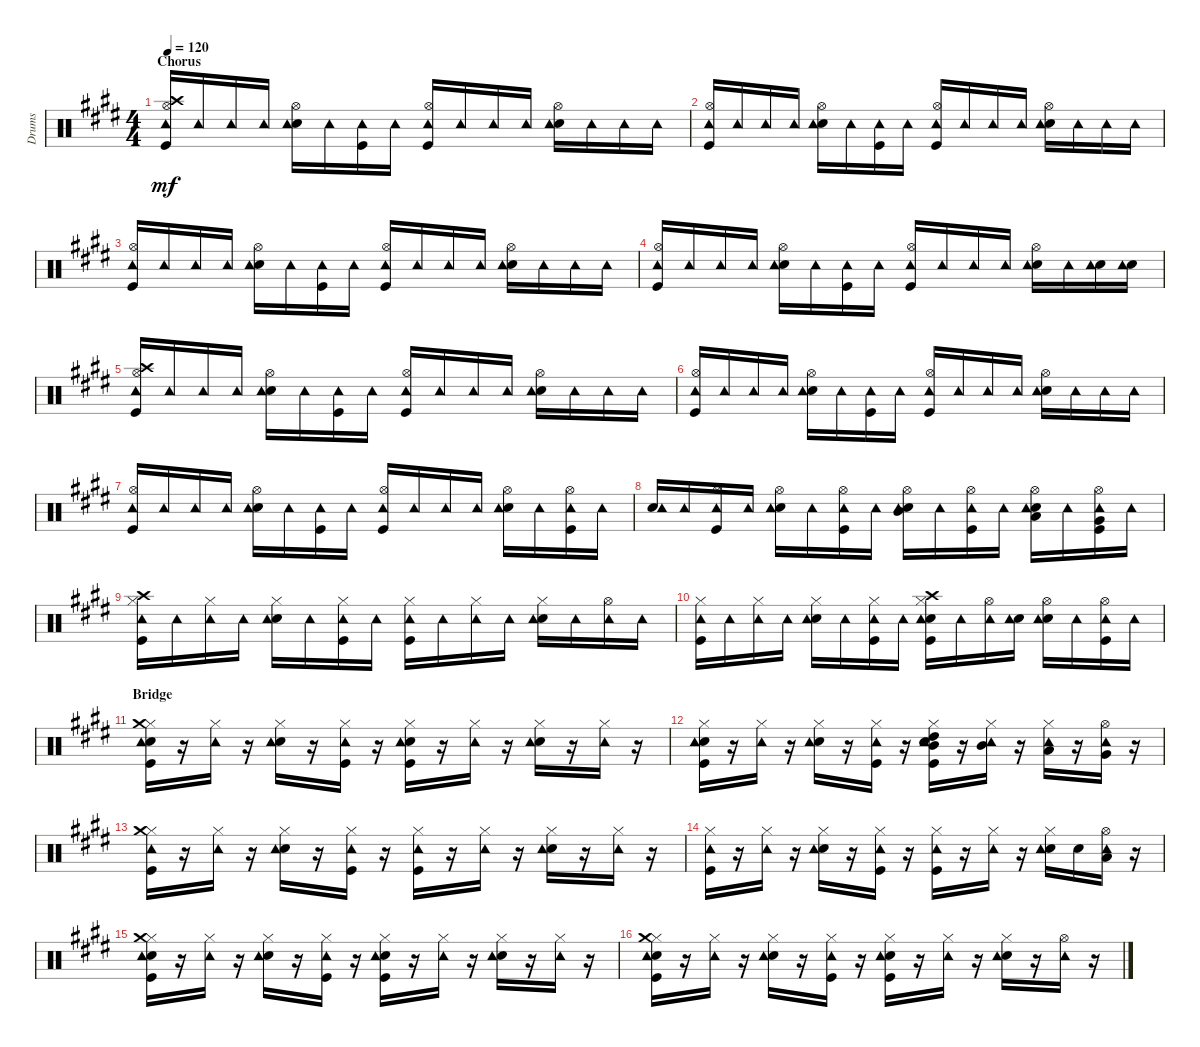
\track ("Drums" "Drums") {instrument percussion}
\staff {score}
\articulation defaults
\ts (4 4)
\section ("" "Chorus")
\tempo 120
\clef neutral
\ks c#minor
("Kick (hit)" "Hi-Hat (open)" "Crash high (hit)" "Tambourine (hit)").16{dy mf} "Tambourine (hit)".16 "Tambourine (hit)".16 "Tambourine (hit)".16 ("Snare (hit) 2" "Hi-Hat (open)" "Tambourine (hit)").16 "Tambourine (hit)".16 ("Kick (hit)" "Tambourine (hit)").16 "Tambourine (hit)".16 ("Kick (hit)" "Hi-Hat (open)" "Tambourine (hit)").16 "Tambourine (hit)".16 "Tambourine (hit)".16 "Tambourine (hit)".16 ("Snare (hit) 2" "Hi-Hat (open)" "Tambourine (hit)").16 "Tambourine (hit)".16 "Tambourine (hit)".16 "Tambourine (hit)".16 |
("Kick (hit)" "Hi-Hat (open)" "Tambourine (hit)").16 "Tambourine (hit)".16 "Tambourine (hit)".16 "Tambourine (hit)".16 ("Snare (hit) 2" "Hi-Hat (open)" "Tambourine (hit)").16 "Tambourine (hit)".16 ("Kick (hit)" "Tambourine (hit)").16 "Tambourine (hit)".16 ("Kick (hit)" "Hi-Hat (open)" "Tambourine (hit)").16 "Tambourine (hit)".16 "Tambourine (hit)".16 "Tambourine (hit)".16 ("Snare (hit) 2" "Hi-Hat (open)" "Tambourine (hit)").16 "Tambourine (hit)".16 "Tambourine (hit)".16 "Tambourine (hit)".16 |
("Kick (hit)" "Hi-Hat (open)" "Tambourine (hit)").16 "Tambourine (hit)".16 "Tambourine (hit)".16 "Tambourine (hit)".16 ("Snare (hit) 2" "Hi-Hat (open)" "Tambourine (hit)").16 "Tambourine (hit)".16 ("Kick (hit)" "Tambourine (hit)").16 "Tambourine (hit)".16 ("Kick (hit)" "Hi-Hat (open)" "Tambourine (hit)").16 "Tambourine (hit)".16 "Tambourine (hit)".16 "Tambourine (hit)".16 ("Snare (hit) 2" "Hi-Hat (open)" "Tambourine (hit)").16 "Tambourine (hit)".16 "Tambourine (hit)".16 "Tambourine (hit)".16 |
("Kick (hit)" "Hi-Hat (open)" "Tambourine (hit)").16 "Tambourine (hit)".16 "Tambourine (hit)".16 "Tambourine (hit)".16 ("Snare (hit) 2" "Hi-Hat (open)" "Tambourine (hit)").16 "Tambourine (hit)".16 ("Kick (hit)" "Tambourine (hit)").16 "Tambourine (hit)".16 ("Kick (hit)" "Hi-Hat (open)" "Tambourine (hit)").16 "Tambourine (hit)".16 "Tambourine (hit)".16 "Tambourine (hit)".16 ("Snare (hit) 2" "Hi-Hat (open)" "Tambourine (hit)").16 "Tambourine (hit)".16 ("Snare (hit) 2" "Tambourine (hit)").16 ("Snare (hit) 2" "Tambourine (hit)").16 |
("Kick (hit)" "Hi-Hat (open)" "Crash high (hit)" "Tambourine (hit)").16 "Tambourine (hit)".16 "Tambourine (hit)".16 "Tambourine (hit)".16 ("Snare (hit) 2" "Hi-Hat (open)" "Tambourine (hit)").16 "Tambourine (hit)".16 ("Kick (hit)" "Tambourine (hit)").16 "Tambourine (hit)".16 ("Kick (hit)" "Hi-Hat (open)" "Tambourine (hit)").16 "Tambourine (hit)".16 "Tambourine (hit)".16 "Tambourine (hit)".16 ("Snare (hit) 2" "Hi-Hat (open)" "Tambourine (hit)").16 "Tambourine (hit)".16 "Tambourine (hit)".16 "Tambourine (hit)".16 |
("Kick (hit)" "Hi-Hat (open)" "Tambourine (hit)").16 "Tambourine (hit)".16 "Tambourine (hit)".16 "Tambourine (hit)".16 ("Snare (hit) 2" "Hi-Hat (open)" "Tambourine (hit)").16 "Tambourine (hit)".16 ("Kick (hit)" "Tambourine (hit)").16 "Tambourine (hit)".16 ("Kick (hit)" "Hi-Hat (open)" "Tambourine (hit)").16 "Tambourine (hit)".16 "Tambourine (hit)".16 "Tambourine (hit)".16 ("Snare (hit) 2" "Hi-Hat (open)" "Tambourine (hit)").16 "Tambourine (hit)".16 "Tambourine (hit)".16 "Tambourine (hit)".16 |
("Kick (hit)" "Hi-Hat (open)" "Tambourine (hit)").16 "Tambourine (hit)".16 "Tambourine (hit)".16 "Tambourine (hit)".16 ("Snare (hit) 2" "Hi-Hat (open)" "Tambourine (hit)").16 "Tambourine (hit)".16 ("Kick (hit)" "Tambourine (hit)").16 "Tambourine (hit)".16 ("Kick (hit)" "Hi-Hat (open)" "Tambourine (hit)").16 "Tambourine (hit)".16 "Tambourine (hit)".16 "Tambourine (hit)".16 ("Snare (hit) 2" "Hi-Hat (open)" "Tambourine (hit)").16 "Tambourine (hit)".16 ("Kick (hit)" "Hi-Hat (open)" "Tambourine (hit)").16 "Tambourine (hit)".16 |
("Snare (hit) 2" "Tambourine (hit)").16 "Tambourine (hit)".16 ("Kick (hit)" "Hi-Hat (open)" "Tambourine (hit)").16 "Tambourine (hit)".16 ("Snare (hit) 2" "Hi-Hat (open)" "Tambourine (hit)").16 "Tambourine (hit)".16 ("Kick (hit)" "Hi-Hat (open)" "Tambourine (hit)").16 "Tambourine (hit)".16 ("Snare (hit) 2" "Hi-Hat (open)" "Mid Tom (hit)" "Tambourine (hit)").16 "Tambourine (hit)".16 ("Kick (hit)" "Hi-Hat (open)" "Tambourine (hit)").16 "Tambourine (hit)".16 ("Snare (hit) 2" "Low Tom (hit)" "Hi-Hat (open)" "Tambourine (hit)").16 "Tambourine (hit)".16 ("Kick (hit)" "Very Low Tom (hit)" "Hi-Hat (open)" "Tambourine (hit)").16 "Tambourine (hit)".16 |
("Kick (hit)" "Hi-Hat (closed)" "Crash high (hit)" "Tambourine (hit)").16 "Tambourine (hit)".16 ("Hi-Hat (closed)" "Tambourine (hit)").16 "Tambourine (hit)".16 ("Snare (hit) 2" "Hi-Hat (closed)" "Tambourine (hit)").16 "Tambourine (hit)".16 ("Kick (hit)" "Hi-Hat (closed)" "Tambourine (hit)").16 "Tambourine (hit)".16 ("Kick (hit)" "Hi-Hat (closed)" "Tambourine (hit)").16 "Tambourine (hit)".16 ("Hi-Hat (closed)" "Tambourine (hit)").16 "Tambourine (hit)".16 ("Snare (hit) 2" "Hi-Hat (closed)" "Tambourine (hit)").16 "Tambourine (hit)".16 ("Hi-Hat (open)" "Tambourine (hit)").16 "Tambourine (hit)".16 |
("Kick (hit)" "Hi-Hat (closed)" "Tambourine (hit)").16 "Tambourine (hit)".16 ("Hi-Hat (closed)" "Tambourine (hit)").16 "Tambourine (hit)".16 ("Snare (hit) 2" "Hi-Hat (closed)" "Tambourine (hit)").16 "Tambourine (hit)".16 ("Kick (hit)" "Hi-Hat (closed)" "Tambourine (hit)").16 "Tambourine (hit)".16 ("Kick (hit)" "Snare (hit) 2" "Hi-Hat (closed)" "Crash high (hit)" "Tambourine (hit)").16 "Tambourine (hit)".16 ("Hi-Hat (open)" "Tambourine (hit)").16 ("Snare (hit) 2" "Tambourine (hit)").16 ("Snare (hit) 2" "Hi-Hat (open)" "Tambourine (hit)").16 "Tambourine (hit)".16 ("Kick (hit)" "Hi-Hat (open)" "Tambourine (hit)").16 "Tambourine (hit)".16 |
\section ("" "Bridge")
("Kick (hit)" "Snare (hit) 2" "Hi-Hat (closed)" "Tambourine (hit)" "Crash medium (hit)").16 r.16 ("Hi-Hat (closed)" "Tambourine (hit)").16 r.16 ("Snare (hit) 2" "Hi-Hat (closed)" "Tambourine (hit)").16 r.16 ("Kick (hit)" "Hi-Hat (closed)" "Tambourine (hit)").16 r.16 ("Kick (hit)" "Snare (hit) 2" "Hi-Hat (closed)" "Tambourine (hit)").16 r.16 ("Hi-Hat (closed)" "Tambourine (hit)").16 r.16 ("Snare (hit) 2" "Hi-Hat (closed)" "Tambourine (hit)").16 r.16 ("Hi-Hat (closed)" "Tambourine (hit)").16 r.16 |
("Kick (hit)" "Snare (hit) 2" "Hi-Hat (closed)" "Tambourine (hit)").16 r.16 ("Hi-Hat (closed)" "Tambourine (hit)").16 r.16 ("Snare (hit) 2" "Hi-Hat (closed)" "Tambourine (hit)").16 r.16 ("Kick (hit)" "Hi-Hat (closed)" "Tambourine (hit)").16 r.16 ("Kick (hit)" "Snare (hit) 2" "Hi-Hat (closed)" "Mid Tom (hit)" "High Tom (hit)" "Tambourine (hit)").16 r.16 ("Hi-Hat (closed)" "Mid Tom (hit)" "Tambourine (hit)").16 r.16 ("Hi-Hat (closed)" "Low Tom (hit)" "Tambourine (hit)").16 r.16 ("Very Low Tom (hit)" "Hi-Hat (open)" "Tambourine (hit)").16 r.16 |
("Kick (hit)" "Hi-Hat (closed)" "Tambourine (hit)" "Crash medium (hit)").16 r.16 ("Hi-Hat (closed)" "Tambourine (hit)").16 r.16 ("Snare (hit) 2" "Hi-Hat (closed)" "Tambourine (hit)").16 r.16 ("Kick (hit)" "Hi-Hat (closed)" "Tambourine (hit)").16 r.16 ("Kick (hit)" "Hi-Hat (closed)" "Tambourine (hit)").16 r.16 ("Hi-Hat (closed)" "Tambourine (hit)").16 r.16 ("Snare (hit) 2" "Hi-Hat (closed)" "Tambourine (hit)").16 r.16 ("Hi-Hat (closed)" "Tambourine (hit)").16 r.16 |
("Kick (hit)" "Hi-Hat (closed)" "Tambourine (hit)").16 r.16 ("Hi-Hat (closed)" "Tambourine (hit)").16 r.16 ("Snare (hit) 2" "Hi-Hat (closed)" "Tambourine (hit)").16 r.16 ("Kick (hit)" "Hi-Hat (closed)" "Tambourine (hit)").16 r.16 ("Kick (hit)" "Hi-Hat (closed)" "Tambourine (hit)").16 r.16 ("Hi-Hat (closed)" "Tambourine (hit)").16 r.16 ("Snare (hit) 2" "Hi-Hat (closed)" "Tambourine (hit)").16 "Snare (hit) 2".16 ("Low Tom (hit)" "Hi-Hat (open)" "Tambourine (hit)").16 r.16 |
("Kick (hit)" "Snare (hit) 2" "Hi-Hat (closed)" "Tambourine (hit)" "Crash medium (hit)").16 r.16 ("Hi-Hat (closed)" "Tambourine (hit)").16 r.16 ("Snare (hit) 2" "Hi-Hat (closed)" "Tambourine (hit)").16 r.16 ("Kick (hit)" "Hi-Hat (closed)" "Tambourine (hit)").16 r.16 ("Kick (hit)" "Snare (hit) 2" "Hi-Hat (closed)" "Tambourine (hit)").16 r.16 ("Hi-Hat (closed)" "Tambourine (hit)").16 r.16 ("Snare (hit) 2" "Hi-Hat (closed)" "Tambourine (hit)").16 r.16 ("Hi-Hat (closed)" "Tambourine (hit)").16 r.16 |
("Kick (hit)" "Snare (hit) 2" "Hi-Hat (closed)" "Tambourine (hit)" "Crash medium (hit)").16 r.16 ("Hi-Hat (closed)" "Tambourine (hit)").16 r.16 ("Snare (hit) 2" "Hi-Hat (closed)" "Tambourine (hit)").16 r.16 ("Kick (hit)" "Hi-Hat (closed)" "Tambourine (hit)").16 r.16 ("Kick (hit)" "Snare (hit) 2" "Hi-Hat (closed)" "Tambourine (hit)").16 r.16 ("Hi-Hat (closed)" "Tambourine (hit)").16 r.16 ("Snare (hit) 2" "Hi-Hat (closed)" "Tambourine (hit)").16 r.16 ("Hi-Hat (open)" "Tambourine (hit)").16 r.16
